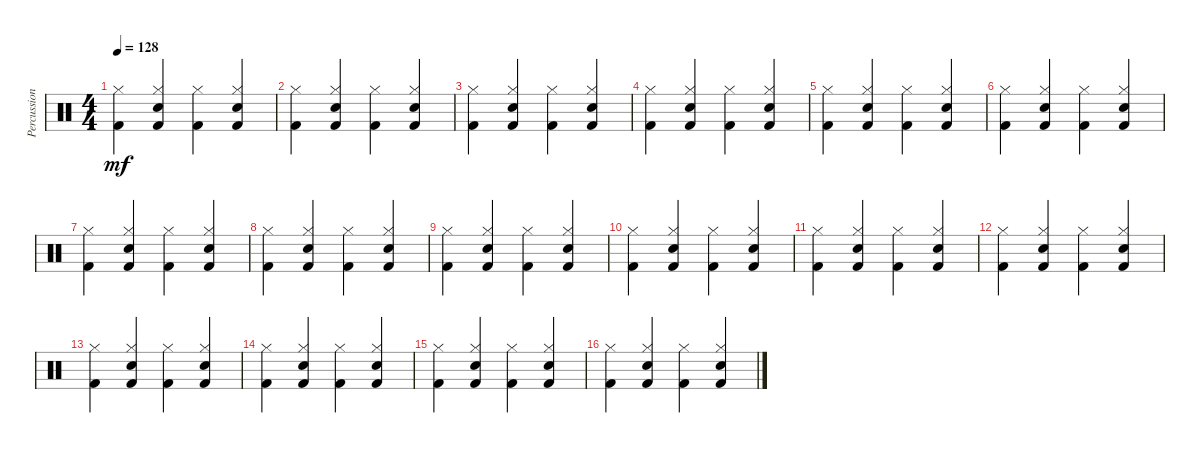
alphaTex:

\track ("Percussions" "Percussion") {instrument percussion}
\staff {score}
\articulation defaults
\ts (4 4)
\tempo 128
\clef neutral
\ks c
("Kick (hit) 2" "Hi-Hat (closed)").4{dy mf} ("Kick (hit) 2" "Hi-Hat (closed)" "Snare (hit) 2").4 ("Kick (hit) 2" "Hi-Hat (closed)").4 ("Kick (hit) 2" "Hi-Hat (closed)" "Snare (hit) 2").4 |
("Kick (hit) 2" "Hi-Hat (closed)").4 ("Kick (hit) 2" "Hi-Hat (closed)" "Snare (hit) 2").4 ("Kick (hit) 2" "Hi-Hat (closed)").4 ("Kick (hit) 2" "Hi-Hat (closed)" "Snare (hit) 2").4 |
("Kick (hit) 2" "Hi-Hat (closed)").4 ("Kick (hit) 2" "Hi-Hat (closed)" "Snare (hit) 2").4 ("Kick (hit) 2" "Hi-Hat (closed)").4 ("Kick (hit) 2" "Hi-Hat (closed)" "Snare (hit) 2").4 |
("Kick (hit) 2" "Hi-Hat (closed)").4 ("Kick (hit) 2" "Hi-Hat (closed)" "Snare (hit) 2").4 ("Kick (hit) 2" "Hi-Hat (closed)").4 ("Kick (hit) 2" "Hi-Hat (closed)" "Snare (hit) 2").4 |
("Kick (hit) 2" "Hi-Hat (closed)").4 ("Kick (hit) 2" "Hi-Hat (closed)" "Snare (hit) 2").4 ("Kick (hit) 2" "Hi-Hat (closed)").4 ("Kick (hit) 2" "Hi-Hat (closed)" "Snare (hit) 2").4 |
("Kick (hit) 2" "Hi-Hat (closed)").4 ("Kick (hit) 2" "Hi-Hat (closed)" "Snare (hit) 2").4 ("Kick (hit) 2" "Hi-Hat (closed)").4 ("Kick (hit) 2" "Hi-Hat (closed)" "Snare (hit) 2").4 |
("Kick (hit) 2" "Hi-Hat (closed)").4 ("Kick (hit) 2" "Hi-Hat (closed)" "Snare (hit) 2").4 ("Kick (hit) 2" "Hi-Hat (closed)").4 ("Kick (hit) 2" "Hi-Hat (closed)" "Snare (hit) 2").4 |
("Kick (hit) 2" "Hi-Hat (closed)").4 ("Kick (hit) 2" "Hi-Hat (closed)" "Snare (hit) 2").4 ("Kick (hit) 2" "Hi-Hat (closed)").4 ("Kick (hit) 2" "Hi-Hat (closed)" "Snare (hit) 2").4 |
("Kick (hit) 2" "Hi-Hat (closed)").4 ("Kick (hit) 2" "Hi-Hat (closed)" "Snare (hit) 2").4 ("Kick (hit) 2" "Hi-Hat (closed)").4 ("Kick (hit) 2" "Hi-Hat (closed)" "Snare (hit) 2").4 |
("Kick (hit) 2" "Hi-Hat (closed)").4 ("Kick (hit) 2" "Hi-Hat (closed)" "Snare (hit) 2").4 ("Kick (hit) 2" "Hi-Hat (closed)").4 ("Kick (hit) 2" "Hi-Hat (closed)" "Snare (hit) 2").4 |
("Kick (hit) 2" "Hi-Hat (closed)").4 ("Kick (hit) 2" "Hi-Hat (closed)" "Snare (hit) 2").4 ("Kick (hit) 2" "Hi-Hat (closed)").4 ("Kick (hit) 2" "Hi-Hat (closed)" "Snare (hit) 2").4 |
("Kick (hit) 2" "Hi-Hat (closed)").4 ("Kick (hit) 2" "Hi-Hat (closed)" "Snare (hit) 2").4 ("Kick (hit) 2" "Hi-Hat (closed)").4 ("Kick (hit) 2" "Hi-Hat (closed)" "Snare (hit) 2").4 |
("Kick (hit) 2" "Hi-Hat (closed)").4 ("Kick (hit) 2" "Hi-Hat (closed)" "Snare (hit) 2").4 ("Kick (hit) 2" "Hi-Hat (closed)").4 ("Kick (hit) 2" "Hi-Hat (closed)" "Snare (hit) 2").4 |
("Kick (hit) 2" "Hi-Hat (closed)").4 ("Kick (hit) 2" "Hi-Hat (closed)" "Snare (hit) 2").4 ("Kick (hit) 2" "Hi-Hat (closed)").4 ("Kick (hit) 2" "Hi-Hat (closed)" "Snare (hit) 2").4 |
("Kick (hit) 2" "Hi-Hat (closed)").4 ("Kick (hit) 2" "Hi-Hat (closed)" "Snare (hit) 2").4 ("Kick (hit) 2" "Hi-Hat (closed)").4 ("Kick (hit) 2" "Hi-Hat (closed)" "Snare (hit) 2").4 |
("Kick (hit) 2" "Hi-Hat (closed)").4 ("Kick (hit) 2" "Hi-Hat (closed)" "Snare (hit) 2").4 ("Kick (hit) 2" "Hi-Hat (closed)").4 ("Kick (hit) 2" "Hi-Hat (closed)" "Snare (hit) 2").4
